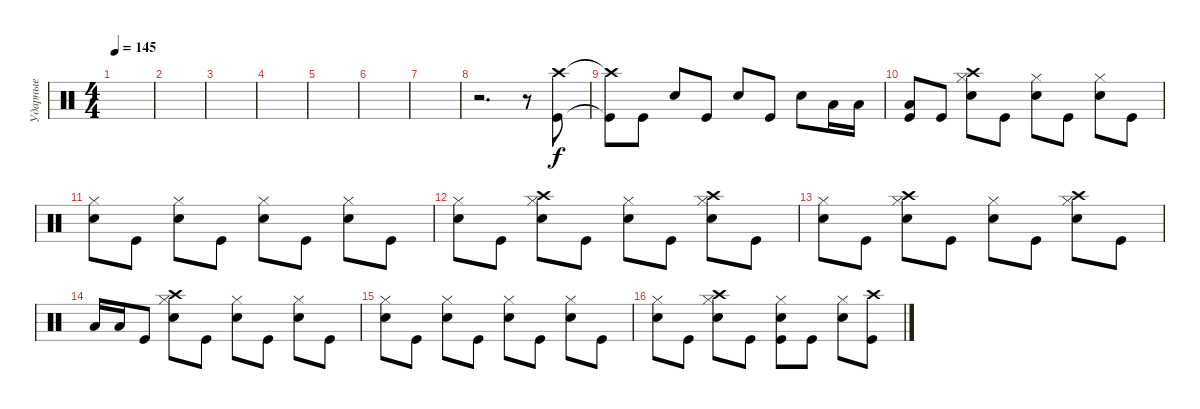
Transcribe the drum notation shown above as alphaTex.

\track ("Ударные" "Ударные") {instrument percussion}
\staff {score}
\articulation defaults
\ts (4 4)
\tempo 145
\clef neutral
\ks c
|
|
|
|
|
|
|
r.2{d} r.8 ("Crash high (hit)" "Kick (hit)").8 |
("Crash high (hit)"{t} "Kick (hit)"{t}).8 "Kick (hit)".8 "Electric Snare (hit)".8 "Kick (hit)".8 "Electric Snare (hit)".8 "Kick (hit)".8 "Electric Snare (hit)".8 "Low Tom (hit)".16 "Low Tom (hit)".16 |
("Low Tom (hit)" "Kick (hit)").8 "Kick (hit)".8 ("Crash high (hit)" "Hi-Hat (closed)" "Electric Snare (hit)").8 "Kick (hit)".8 ("Hi-Hat (closed)" "Electric Snare (hit)").8 "Kick (hit)".8 ("Hi-Hat (closed)" "Electric Snare (hit)").8 "Kick (hit)".8 |
("Hi-Hat (closed)" "Electric Snare (hit)").8 "Kick (hit)".8 ("Hi-Hat (closed)" "Electric Snare (hit)").8 "Kick (hit)".8 ("Hi-Hat (closed)" "Electric Snare (hit)").8 "Kick (hit)".8 ("Hi-Hat (closed)" "Electric Snare (hit)").8 "Kick (hit)".8 |
("Hi-Hat (closed)" "Electric Snare (hit)").8 "Kick (hit)".8 ("Crash high (hit)" "Hi-Hat (closed)" "Electric Snare (hit)").8 "Kick (hit)".8 ("Hi-Hat (closed)" "Electric Snare (hit)").8 "Kick (hit)".8 ("Crash high (hit)" "Hi-Hat (closed)" "Electric Snare (hit)").8 "Kick (hit)".8 |
("Hi-Hat (closed)" "Electric Snare (hit)").8 "Kick (hit)".8 ("Crash high (hit)" "Hi-Hat (closed)" "Electric Snare (hit)").8 "Kick (hit)".8 ("Hi-Hat (closed)" "Electric Snare (hit)").8 "Kick (hit)".8 ("Crash high (hit)" "Hi-Hat (closed)" "Electric Snare (hit)").8 "Kick (hit)".8 |
"Low Tom (hit)".16 "Low Tom (hit)".16 "Kick (hit)".8 ("Crash high (hit)" "Hi-Hat (closed)" "Electric Snare (hit)").8 "Kick (hit)".8 ("Hi-Hat (closed)" "Electric Snare (hit)").8 "Kick (hit)".8 ("Hi-Hat (closed)" "Electric Snare (hit)").8 "Kick (hit)".8 |
("Hi-Hat (closed)" "Electric Snare (hit)").8 "Kick (hit)".8 ("Hi-Hat (closed)" "Electric Snare (hit)").8 "Kick (hit)".8 ("Hi-Hat (closed)" "Electric Snare (hit)").8 "Kick (hit)".8 ("Hi-Hat (closed)" "Electric Snare (hit)").8 "Kick (hit)".8 |
("Hi-Hat (closed)" "Electric Snare (hit)").8 "Kick (hit)".8 ("Crash high (hit)" "Hi-Hat (closed)" "Electric Snare (hit)").8 "Kick (hit)".8 ("Hi-Hat (closed)" "Electric Snare (hit)" "Kick (hit)").8 "Kick (hit)".8 ("Hi-Hat (closed)" "Electric Snare (hit)").8 ("Crash high (hit)" "Kick (hit)").8
